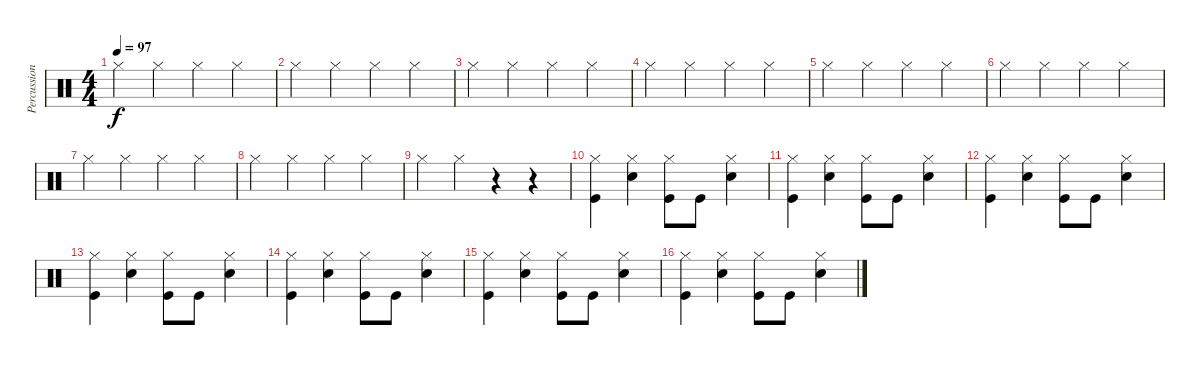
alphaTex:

\track ("Percussion" "Percussion") {instrument percussion}
\staff {score}
\articulation defaults
\ts (4 4)
\tempo 97
\clef neutral
\ks c "Hi-Hat (closed)".4{dy f} "Hi-Hat (closed)".4 "Hi-Hat (closed)".4 "Hi-Hat (closed)".4
|
"Hi-Hat (closed)".4 "Hi-Hat (closed)".4 "Hi-Hat (closed)".4 "Hi-Hat (closed)".4 |
"Hi-Hat (closed)".4 "Hi-Hat (closed)".4 "Hi-Hat (closed)".4 "Hi-Hat (closed)".4 |
"Hi-Hat (closed)".4 "Hi-Hat (closed)".4 "Hi-Hat (closed)".4 "Hi-Hat (closed)".4 |
"Hi-Hat (closed)".4 "Hi-Hat (closed)".4 "Hi-Hat (closed)".4 "Hi-Hat (closed)".4 |
"Hi-Hat (closed)".4 "Hi-Hat (closed)".4 "Hi-Hat (closed)".4 "Hi-Hat (closed)".4 |
"Hi-Hat (closed)".4 "Hi-Hat (closed)".4 "Hi-Hat (closed)".4 "Hi-Hat (closed)".4 |
"Hi-Hat (closed)".4 "Hi-Hat (closed)".4 "Hi-Hat (closed)".4 "Hi-Hat (closed)".4 |
"Hi-Hat (closed)".4 "Hi-Hat (closed)".4 r.4 r.4 |
("Hi-Hat (closed)" "Kick (hit)").4 ("Hi-Hat (closed)" "Snare (hit) 2").4 ("Hi-Hat (closed)" "Kick (hit)").8 "Kick (hit)".8 ("Hi-Hat (closed)" "Snare (hit) 2").4 |
("Hi-Hat (closed)" "Kick (hit)").4 ("Hi-Hat (closed)" "Snare (hit) 2").4 ("Hi-Hat (closed)" "Kick (hit)").8 "Kick (hit)".8 ("Hi-Hat (closed)" "Snare (hit) 2").4 |
("Hi-Hat (closed)" "Kick (hit)").4 ("Hi-Hat (closed)" "Snare (hit) 2").4 ("Hi-Hat (closed)" "Kick (hit)").8 "Kick (hit)".8 ("Hi-Hat (closed)" "Snare (hit) 2").4 |
("Hi-Hat (closed)" "Kick (hit)").4 ("Hi-Hat (closed)" "Snare (hit) 2").4 ("Hi-Hat (closed)" "Kick (hit)").8 "Kick (hit)".8 ("Hi-Hat (closed)" "Snare (hit) 2").4 |
("Hi-Hat (closed)" "Kick (hit)").4 ("Hi-Hat (closed)" "Snare (hit) 2").4 ("Hi-Hat (closed)" "Kick (hit)").8 "Kick (hit)".8 ("Hi-Hat (closed)" "Snare (hit) 2").4 |
("Hi-Hat (closed)" "Kick (hit)").4 ("Hi-Hat (closed)" "Snare (hit) 2").4 ("Hi-Hat (closed)" "Kick (hit)").8 "Kick (hit)".8 ("Hi-Hat (closed)" "Snare (hit) 2").4 |
("Hi-Hat (closed)" "Kick (hit)").4 ("Hi-Hat (closed)" "Snare (hit) 2").4 ("Hi-Hat (closed)" "Kick (hit)").8 "Kick (hit)".8 ("Hi-Hat (closed)" "Snare (hit) 2").4
